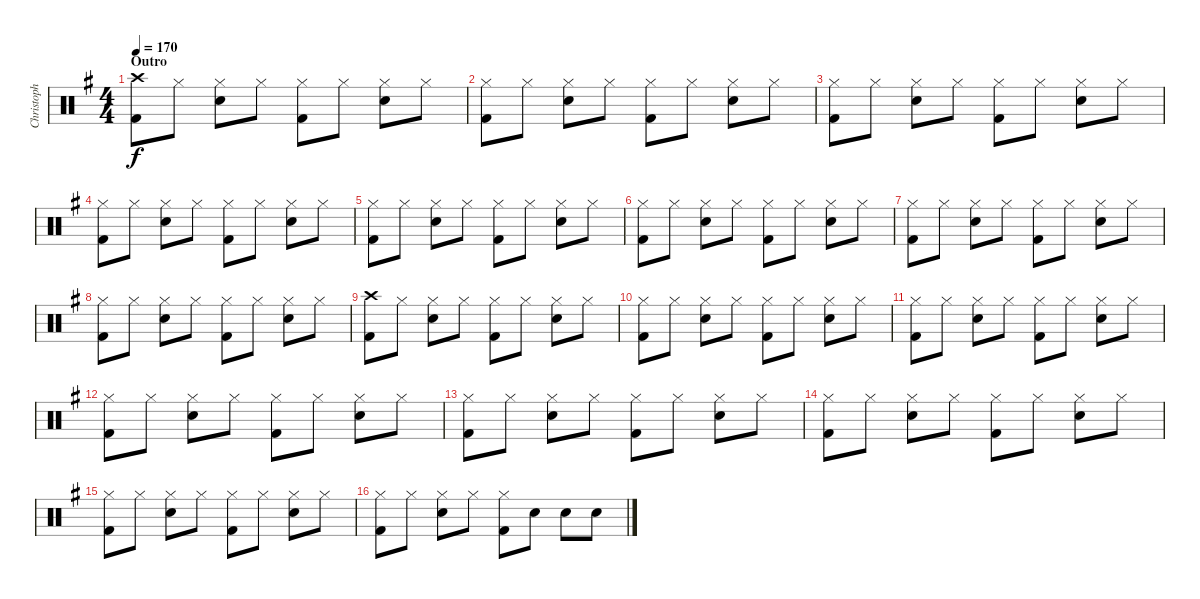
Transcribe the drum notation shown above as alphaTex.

\track ("Christoph Doom Schneider - Drums" "Christoph ") {instrument percussion}
\staff {score}
\articulation defaults
\ts (4 4)
\section ("" "Outro")
\tempo 170
\clef neutral
\ks g
("Crash high (hit)" "Kick (hit) 2").8{dy f} "Hi-Hat (closed)".8 ("Hi-Hat (closed)" "Electric Snare (hit)").8 "Hi-Hat (closed)".8 ("Hi-Hat (closed)" "Kick (hit) 2").8 "Hi-Hat (closed)".8 ("Hi-Hat (closed)" "Electric Snare (hit)").8 "Hi-Hat (closed)".8 |
("Hi-Hat (closed)" "Kick (hit) 2").8 "Hi-Hat (closed)".8 ("Hi-Hat (closed)" "Electric Snare (hit)").8 "Hi-Hat (closed)".8 ("Hi-Hat (closed)" "Kick (hit) 2").8 "Hi-Hat (closed)".8 ("Hi-Hat (closed)" "Electric Snare (hit)").8 "Hi-Hat (closed)".8 |
("Hi-Hat (closed)" "Kick (hit) 2").8 "Hi-Hat (closed)".8 ("Hi-Hat (closed)" "Electric Snare (hit)").8 "Hi-Hat (closed)".8 ("Hi-Hat (closed)" "Kick (hit) 2").8 "Hi-Hat (closed)".8 ("Hi-Hat (closed)" "Electric Snare (hit)").8 "Hi-Hat (closed)".8 |
("Hi-Hat (closed)" "Kick (hit) 2").8 "Hi-Hat (closed)".8 ("Hi-Hat (closed)" "Electric Snare (hit)").8 "Hi-Hat (closed)".8 ("Hi-Hat (closed)" "Kick (hit) 2").8 "Hi-Hat (closed)".8 ("Hi-Hat (closed)" "Electric Snare (hit)").8 "Hi-Hat (closed)".8 |
("Hi-Hat (closed)" "Kick (hit) 2").8 "Hi-Hat (closed)".8 ("Hi-Hat (closed)" "Electric Snare (hit)").8 "Hi-Hat (closed)".8 ("Hi-Hat (closed)" "Kick (hit) 2").8 "Hi-Hat (closed)".8 ("Hi-Hat (closed)" "Electric Snare (hit)").8 "Hi-Hat (closed)".8 |
("Hi-Hat (closed)" "Kick (hit) 2").8 "Hi-Hat (closed)".8 ("Hi-Hat (closed)" "Electric Snare (hit)").8 "Hi-Hat (closed)".8 ("Hi-Hat (closed)" "Kick (hit) 2").8 "Hi-Hat (closed)".8 ("Hi-Hat (closed)" "Electric Snare (hit)").8 "Hi-Hat (closed)".8 |
("Hi-Hat (closed)" "Kick (hit) 2").8 "Hi-Hat (closed)".8 ("Hi-Hat (closed)" "Electric Snare (hit)").8 "Hi-Hat (closed)".8 ("Hi-Hat (closed)" "Kick (hit) 2").8 "Hi-Hat (closed)".8 ("Hi-Hat (closed)" "Electric Snare (hit)").8 "Hi-Hat (closed)".8 |
("Hi-Hat (closed)" "Kick (hit) 2").8 "Hi-Hat (closed)".8 ("Hi-Hat (closed)" "Electric Snare (hit)").8 "Hi-Hat (closed)".8 ("Hi-Hat (closed)" "Kick (hit) 2").8 "Hi-Hat (closed)".8 ("Hi-Hat (closed)" "Electric Snare (hit)").8 "Hi-Hat (closed)".8 |
("Crash high (hit)" "Kick (hit) 2").8 "Hi-Hat (closed)".8 ("Hi-Hat (closed)" "Electric Snare (hit)").8 "Hi-Hat (closed)".8 ("Hi-Hat (closed)" "Kick (hit) 2").8 "Hi-Hat (closed)".8 ("Hi-Hat (closed)" "Electric Snare (hit)").8 "Hi-Hat (closed)".8 |
("Hi-Hat (closed)" "Kick (hit) 2").8 "Hi-Hat (closed)".8 ("Hi-Hat (closed)" "Electric Snare (hit)").8 "Hi-Hat (closed)".8 ("Hi-Hat (closed)" "Kick (hit) 2").8 "Hi-Hat (closed)".8 ("Hi-Hat (closed)" "Electric Snare (hit)").8 "Hi-Hat (closed)".8 |
("Hi-Hat (closed)" "Kick (hit) 2").8 "Hi-Hat (closed)".8 ("Hi-Hat (closed)" "Electric Snare (hit)").8 "Hi-Hat (closed)".8 ("Hi-Hat (closed)" "Kick (hit) 2").8 "Hi-Hat (closed)".8 ("Hi-Hat (closed)" "Electric Snare (hit)").8 "Hi-Hat (closed)".8 |
("Hi-Hat (closed)" "Kick (hit) 2").8 "Hi-Hat (closed)".8 ("Hi-Hat (closed)" "Electric Snare (hit)").8 "Hi-Hat (closed)".8 ("Hi-Hat (closed)" "Kick (hit) 2").8 "Hi-Hat (closed)".8 ("Hi-Hat (closed)" "Electric Snare (hit)").8 "Hi-Hat (closed)".8 |
("Hi-Hat (closed)" "Kick (hit) 2").8 "Hi-Hat (closed)".8 ("Hi-Hat (closed)" "Electric Snare (hit)").8 "Hi-Hat (closed)".8 ("Hi-Hat (closed)" "Kick (hit) 2").8 "Hi-Hat (closed)".8 ("Hi-Hat (closed)" "Electric Snare (hit)").8 "Hi-Hat (closed)".8 |
("Hi-Hat (closed)" "Kick (hit) 2").8 "Hi-Hat (closed)".8 ("Hi-Hat (closed)" "Electric Snare (hit)").8 "Hi-Hat (closed)".8 ("Hi-Hat (closed)" "Kick (hit) 2").8 "Hi-Hat (closed)".8 ("Hi-Hat (closed)" "Electric Snare (hit)").8 "Hi-Hat (closed)".8 |
("Hi-Hat (closed)" "Kick (hit) 2").8 "Hi-Hat (closed)".8 ("Hi-Hat (closed)" "Electric Snare (hit)").8 "Hi-Hat (closed)".8 ("Hi-Hat (closed)" "Kick (hit) 2").8 "Hi-Hat (closed)".8 ("Hi-Hat (closed)" "Electric Snare (hit)").8 "Hi-Hat (closed)".8 |
("Hi-Hat (closed)" "Kick (hit) 2").8 "Hi-Hat (closed)".8 ("Hi-Hat (closed)" "Electric Snare (hit)").8 "Hi-Hat (closed)".8 ("Hi-Hat (closed)" "Kick (hit) 2").8 "Electric Snare (hit)".8 "Electric Snare (hit)".8 "Electric Snare (hit)".8
